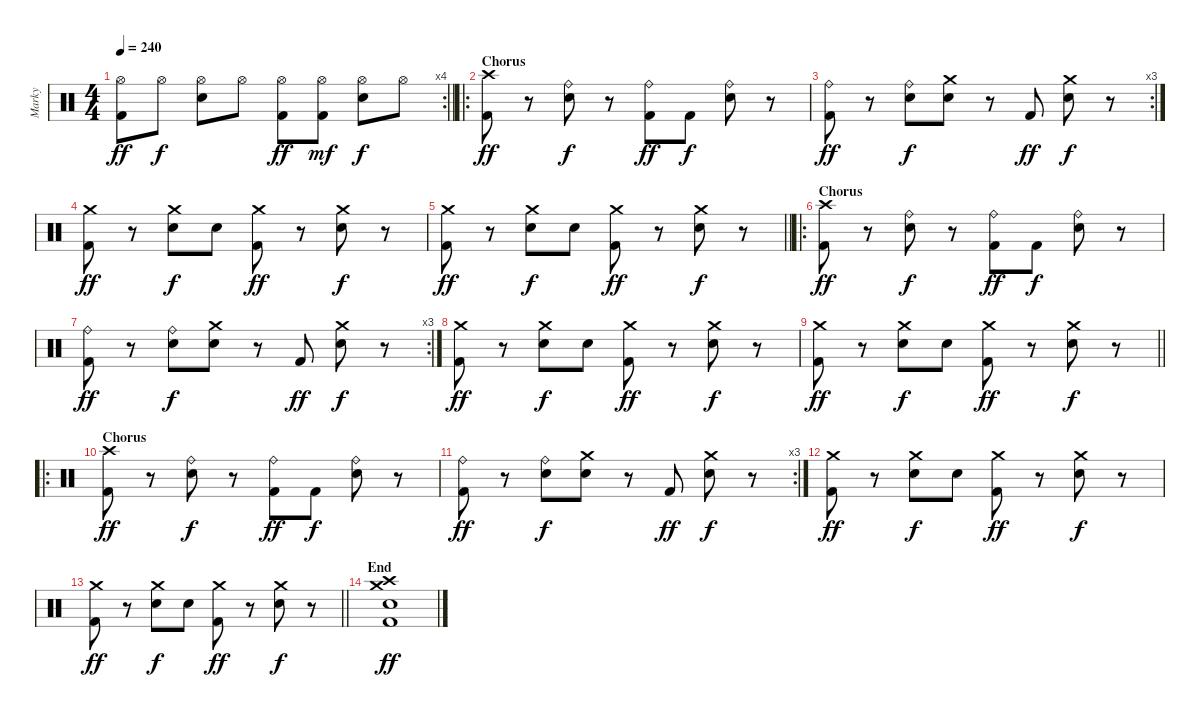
\track ("Marky" "Marky") {instrument percussion}
\staff {score}
\articulation defaults
\rc 4
\ts (4 4)
\tempo 240
\clef neutral
\barLineRight lightlight
\ks c
("Hi-Hat (open)" "Kick (hit) 2").8{dy ff} "Hi-Hat (open)".8{dy f} ("Hi-Hat (open)" "Snare (hit) 2").8 "Hi-Hat (open)".8 ("Hi-Hat (open)" "Kick (hit) 2").8{dy ff} ("Hi-Hat (open)" "Kick (hit) 2").8{dy mf} ("Hi-Hat (open)" "Snare (hit) 2").8{dy f} "Hi-Hat (open)".8 |
\ro
\section ("" "Chorus")
("Crash high (hit)" "Kick (hit) 2").8{dy ff} r.8 ("Ride (bell)" "Snare (hit) 2").8{dy f} r.8 ("Ride (bell)" "Kick (hit) 2").8{dy ff} "Kick (hit) 2".8{dy f} ("Ride (bell)" "Snare (hit) 2").8 r.8 |
\rc 3
("Ride (bell)" "Kick (hit) 2").8{dy ff} r.8 ("Ride (bell)" "Snare (hit) 2").8{dy f} ("Crash medium (hit)" "Snare (hit) 2").8 r.8 "Kick (hit) 2".8{dy ff} ("Crash medium (hit)" "Snare (hit) 2").8{dy f} r.8 |
("Crash medium (hit)" "Kick (hit) 2").8{dy ff} r.8 ("Crash medium (hit)" "Snare (hit) 2").8{dy f} "Snare (hit) 2".8 ("Crash medium (hit)" "Kick (hit) 2").8{dy ff} r.8 ("Crash medium (hit)" "Snare (hit) 2").8{dy f} r.8 |
\barLineRight lightlight
("Crash medium (hit)" "Kick (hit) 2").8{dy ff} r.8 ("Crash medium (hit)" "Snare (hit) 2").8{dy f} "Snare (hit) 2".8 ("Crash medium (hit)" "Kick (hit) 2").8{dy ff} r.8 ("Crash medium (hit)" "Snare (hit) 2").8{dy f} r.8 |
\ro
\section ("" "Chorus")
("Crash high (hit)" "Kick (hit) 2").8{dy ff} r.8 ("Ride (bell)" "Snare (hit) 2").8{dy f} r.8 ("Ride (bell)" "Kick (hit) 2").8{dy ff} "Kick (hit) 2".8{dy f} ("Ride (bell)" "Snare (hit) 2").8 r.8 |
\rc 3
("Ride (bell)" "Kick (hit) 2").8{dy ff} r.8 ("Ride (bell)" "Snare (hit) 2").8{dy f} ("Crash medium (hit)" "Snare (hit) 2").8 r.8 "Kick (hit) 2".8{dy ff} ("Crash medium (hit)" "Snare (hit) 2").8{dy f} r.8 |
("Crash medium (hit)" "Kick (hit) 2").8{dy ff} r.8 ("Crash medium (hit)" "Snare (hit) 2").8{dy f} "Snare (hit) 2".8 ("Crash medium (hit)" "Kick (hit) 2").8{dy ff} r.8 ("Crash medium (hit)" "Snare (hit) 2").8{dy f} r.8 |
\barLineRight lightlight
("Crash medium (hit)" "Kick (hit) 2").8{dy ff} r.8 ("Crash medium (hit)" "Snare (hit) 2").8{dy f} "Snare (hit) 2".8 ("Crash medium (hit)" "Kick (hit) 2").8{dy ff} r.8 ("Crash medium (hit)" "Snare (hit) 2").8{dy f} r.8 |
\ro
\section ("" "Chorus")
("Crash high (hit)" "Kick (hit) 2").8{dy ff} r.8 ("Ride (bell)" "Snare (hit) 2").8{dy f} r.8 ("Ride (bell)" "Kick (hit) 2").8{dy ff} "Kick (hit) 2".8{dy f} ("Ride (bell)" "Snare (hit) 2").8 r.8 |
\rc 3
("Ride (bell)" "Kick (hit) 2").8{dy ff} r.8 ("Ride (bell)" "Snare (hit) 2").8{dy f} ("Crash medium (hit)" "Snare (hit) 2").8 r.8 "Kick (hit) 2".8{dy ff} ("Crash medium (hit)" "Snare (hit) 2").8{dy f} r.8 |
("Crash medium (hit)" "Kick (hit) 2").8{dy ff} r.8 ("Crash medium (hit)" "Snare (hit) 2").8{dy f} "Snare (hit) 2".8 ("Crash medium (hit)" "Kick (hit) 2").8{dy ff} r.8 ("Crash medium (hit)" "Snare (hit) 2").8{dy f} r.8 |
\barLineRight lightlight
("Crash medium (hit)" "Kick (hit) 2").8{dy ff} r.8 ("Crash medium (hit)" "Snare (hit) 2").8{dy f} "Snare (hit) 2".8 ("Crash medium (hit)" "Kick (hit) 2").8{dy ff} r.8 ("Crash medium (hit)" "Snare (hit) 2").8{dy f} r.8 |
\section ("" "End")
("Crash high (hit)" "Crash medium (hit)" "Snare (hit) 2" "Kick (hit) 2").1{dy ff}
